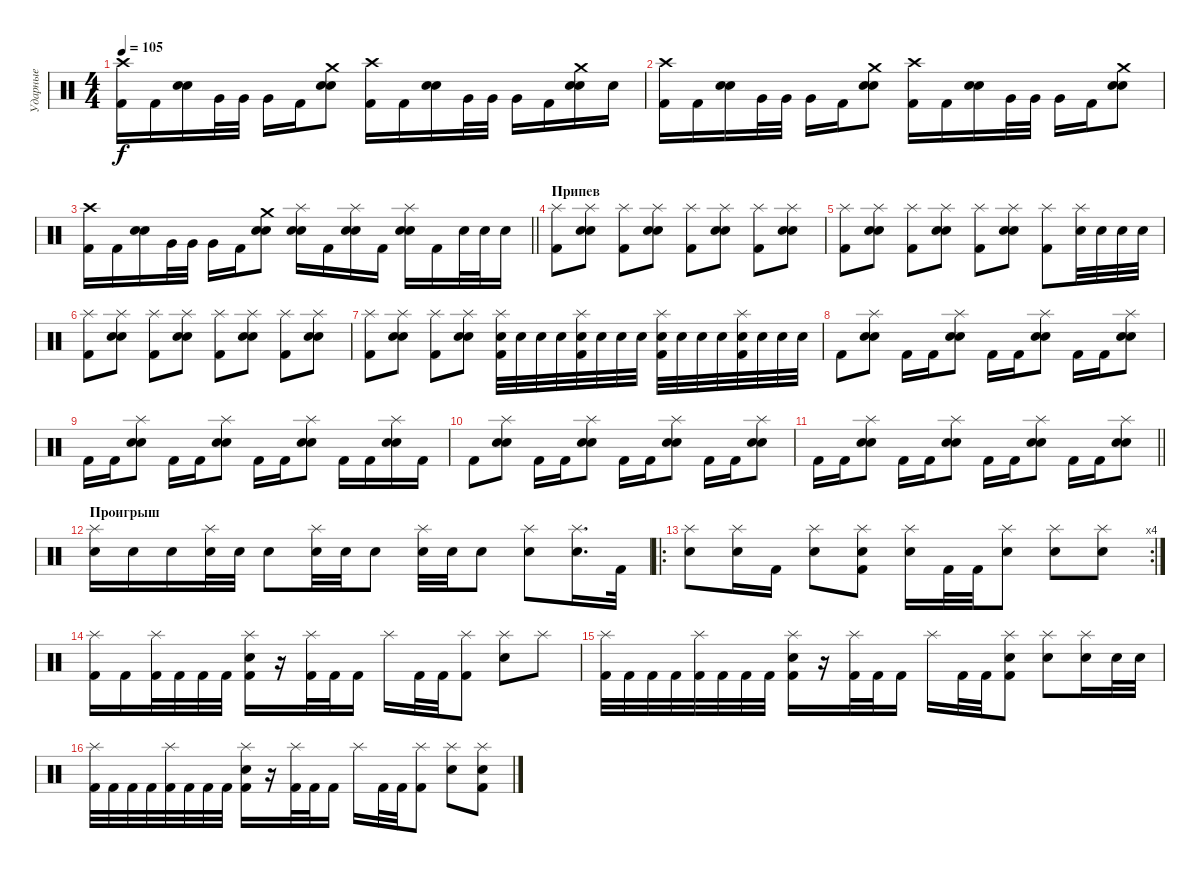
\track ("Ударные" "Ударные") {instrument percussion}
\staff {score}
\articulation defaults
\ts (4 4)
\tempo 105
\clef neutral
\ks c
("Crash high (hit)" "Kick (hit) 2").16{dy f} "Kick (hit) 2".16 ("Electric Snare (hit)" "Snare (hit) 2").16 "Very Low Tom (hit)".32 "Very Low Tom (hit)".32 "Very Low Tom (hit)".16 "Kick (hit) 2".16 ("Crash medium (hit)" "Electric Snare (hit)" "Snare (hit) 2").8 ("Crash high (hit)" "Kick (hit) 2").16 "Kick (hit) 2".16 ("Electric Snare (hit)" "Snare (hit) 2").16 "Very Low Tom (hit)".32 "Very Low Tom (hit)".32 "Very Low Tom (hit)".16 "Kick (hit) 2".16 ("Crash medium (hit)" "Electric Snare (hit)" "Snare (hit) 2").16 "Electric Snare (hit)".16 |
("Crash high (hit)" "Kick (hit) 2").16 "Kick (hit) 2".16 ("Electric Snare (hit)" "Snare (hit) 2").16 "Very Low Tom (hit)".32 "Very Low Tom (hit)".32 "Very Low Tom (hit)".16 "Kick (hit) 2".16 ("Crash medium (hit)" "Electric Snare (hit)" "Snare (hit) 2").8 ("Crash high (hit)" "Kick (hit) 2").16 "Kick (hit) 2".16 ("Electric Snare (hit)" "Snare (hit) 2").16 "Very Low Tom (hit)".32 "Very Low Tom (hit)".32 "Very Low Tom (hit)".16 "Kick (hit) 2".16 ("Crash medium (hit)" "Electric Snare (hit)" "Snare (hit) 2").8 |
\barLineRight lightlight
("Crash high (hit)" "Kick (hit) 2").16 "Kick (hit) 2".16 ("Electric Snare (hit)" "Snare (hit) 2").16 "Very Low Tom (hit)".32 "Very Low Tom (hit)".32 "Very Low Tom (hit)".16 "Kick (hit) 2".16 ("Crash medium (hit)" "Electric Snare (hit)" "Snare (hit) 2").8 ("Splash (hit)" "Electric Snare (hit)" "Snare (hit) 2").16 "Kick (hit) 2".16 ("Splash (hit)" "Electric Snare (hit)" "Snare (hit) 2").16 "Kick (hit) 2".16 ("Splash (hit)" "Electric Snare (hit)" "Snare (hit) 2").16 "Kick (hit) 2".16 "Electric Snare (hit)".32 "Electric Snare (hit)".32 "Electric Snare (hit)".16 |
\section ("" "Припев")
("Splash (hit)" "Kick (hit) 2").8 ("Splash (hit)" "Electric Snare (hit)" "Snare (hit) 2").8 ("Splash (hit)" "Kick (hit) 2").8 ("Splash (hit)" "Electric Snare (hit)" "Snare (hit) 2").8 ("Splash (hit)" "Kick (hit) 2").8 ("Splash (hit)" "Electric Snare (hit)" "Snare (hit) 2").8 ("Splash (hit)" "Kick (hit) 2").8 ("Splash (hit)" "Electric Snare (hit)" "Snare (hit) 2").8 |
("Splash (hit)" "Kick (hit) 2").8 ("Splash (hit)" "Electric Snare (hit)" "Snare (hit) 2").8 ("Splash (hit)" "Kick (hit) 2").8 ("Splash (hit)" "Electric Snare (hit)" "Snare (hit) 2").8 ("Splash (hit)" "Kick (hit) 2").8 ("Splash (hit)" "Electric Snare (hit)" "Snare (hit) 2").8 ("Splash (hit)" "Kick (hit) 2").8 ("Splash (hit)" "Electric Snare (hit)").32 "Electric Snare (hit)".32 "Electric Snare (hit)".32 "Electric Snare (hit)".32 |
("Splash (hit)" "Kick (hit) 2").8 ("Splash (hit)" "Electric Snare (hit)" "Snare (hit) 2").8 ("Splash (hit)" "Kick (hit) 2").8 ("Splash (hit)" "Electric Snare (hit)" "Snare (hit) 2").8 ("Splash (hit)" "Kick (hit) 2").8 ("Splash (hit)" "Electric Snare (hit)" "Snare (hit) 2").8 ("Splash (hit)" "Kick (hit) 2").8 ("Splash (hit)" "Electric Snare (hit)" "Snare (hit) 2").8 |
("Splash (hit)" "Kick (hit) 2").8 ("Splash (hit)" "Electric Snare (hit)" "Snare (hit) 2").8 ("Splash (hit)" "Kick (hit) 2").8 ("Splash (hit)" "Electric Snare (hit)" "Snare (hit) 2").8 ("Splash (hit)" "Electric Snare (hit)" "Kick (hit) 2").32 "Electric Snare (hit)".32 "Electric Snare (hit)".32 "Electric Snare (hit)".32 ("Splash (hit)" "Electric Snare (hit)" "Kick (hit) 2").32 "Electric Snare (hit)".32 "Electric Snare (hit)".32 "Electric Snare (hit)".32 ("Splash (hit)" "Electric Snare (hit)" "Kick (hit) 2").32 "Electric Snare (hit)".32 "Electric Snare (hit)".32 "Electric Snare (hit)".32 ("Splash (hit)" "Electric Snare (hit)" "Kick (hit) 2").32 "Electric Snare (hit)".32 "Electric Snare (hit)".32 "Electric Snare (hit)".32 |
"Kick (hit) 2".8 ("Splash (hit)" "Electric Snare (hit)" "Snare (hit) 2").8 "Kick (hit) 2".16 "Kick (hit) 2".16 ("Splash (hit)" "Electric Snare (hit)" "Snare (hit) 2").8 "Kick (hit) 2".16 "Kick (hit) 2".16 ("Splash (hit)" "Electric Snare (hit)" "Snare (hit) 2").8 "Kick (hit) 2".16 "Kick (hit) 2".16 ("Splash (hit)" "Electric Snare (hit)" "Snare (hit) 2").8 |
"Kick (hit) 2".16 "Kick (hit) 2".16 ("Splash (hit)" "Electric Snare (hit)" "Snare (hit) 2").8 "Kick (hit) 2".16 "Kick (hit) 2".16 ("Splash (hit)" "Electric Snare (hit)" "Snare (hit) 2").8 "Kick (hit) 2".16 "Kick (hit) 2".16 ("Splash (hit)" "Electric Snare (hit)" "Snare (hit) 2").8 "Kick (hit) 2".16 "Kick (hit) 2".16 ("Splash (hit)" "Electric Snare (hit)" "Snare (hit) 2").16 "Kick (hit) 2".16 |
"Kick (hit) 2".8 ("Splash (hit)" "Electric Snare (hit)" "Snare (hit) 2").8 "Kick (hit) 2".16 "Kick (hit) 2".16 ("Splash (hit)" "Electric Snare (hit)" "Snare (hit) 2").8 "Kick (hit) 2".16 "Kick (hit) 2".16 ("Splash (hit)" "Electric Snare (hit)" "Snare (hit) 2").8 "Kick (hit) 2".16 "Kick (hit) 2".16 ("Splash (hit)" "Electric Snare (hit)" "Snare (hit) 2").8 |
\barLineRight lightlight "Kick (hit) 2".16 "Kick (hit) 2".16
("Splash (hit)" "Electric Snare (hit)" "Snare (hit) 2").8 "Kick (hit) 2".16 "Kick (hit) 2".16 ("Splash (hit)" "Electric Snare (hit)" "Snare (hit) 2").8 "Kick (hit) 2".16 "Kick (hit) 2".16 ("Splash (hit)" "Electric Snare (hit)" "Snare (hit) 2").8 "Kick (hit) 2".16 "Kick (hit) 2".16 ("Splash (hit)" "Electric Snare (hit)" "Snare (hit) 2").8 |
\section ("" "Проигрыш")
("Splash (hit)" "Electric Snare (hit)").16 "Electric Snare (hit)".16 "Electric Snare (hit)".16 ("Splash (hit)" "Electric Snare (hit)").32 "Electric Snare (hit)".32 "Electric Snare (hit)".8 ("Splash (hit)" "Electric Snare (hit)").32 "Electric Snare (hit)".32 "Electric Snare (hit)".8 ("Splash (hit)" "Electric Snare (hit)").32 "Electric Snare (hit)".32 "Electric Snare (hit)".8 ("Splash (hit)" "Electric Snare (hit)").8 ("Splash (hit)" "Electric Snare (hit)").16{d} "Kick (hit) 2".32 |
\ro
\rc 4
("Splash (hit)" "Electric Snare (hit)").8 ("Splash (hit)" "Electric Snare (hit)").16 "Kick (hit) 2".16 ("Splash (hit)" "Electric Snare (hit)").8 ("Splash (hit)" "Electric Snare (hit)" "Kick (hit) 2").8 ("Splash (hit)" "Electric Snare (hit)").16 "Kick (hit) 2".32 "Kick (hit) 2".32 ("Splash (hit)" "Electric Snare (hit)").8 ("Splash (hit)" "Electric Snare (hit)").8 ("Splash (hit)" "Electric Snare (hit)").8 |
("Splash (hit)" "Kick (hit) 2").16 "Kick (hit) 2".16 ("Splash (hit)" "Kick (hit) 2").32 "Kick (hit) 2".32 "Kick (hit) 2".32 "Kick (hit) 2".32 ("Splash (hit)" "Electric Snare (hit)" "Kick (hit) 2").16 r.16 ("Splash (hit)" "Kick (hit) 2").32 "Kick (hit) 2".32 "Kick (hit) 2".16 "Splash (hit)".16 "Kick (hit) 2".32 "Kick (hit) 2".32 ("Splash (hit)" "Kick (hit) 2").8 ("Splash (hit)" "Electric Snare (hit)").8 "Splash (hit)".8 |
("Splash (hit)" "Kick (hit) 2").32 "Kick (hit) 2".32 "Kick (hit) 2".32 "Kick (hit) 2".32 ("Splash (hit)" "Kick (hit) 2").32 "Kick (hit) 2".32 "Kick (hit) 2".32 "Kick (hit) 2".32 ("Splash (hit)" "Electric Snare (hit)" "Kick (hit) 2").16 r.16 ("Splash (hit)" "Kick (hit) 2").32 "Kick (hit) 2".32 "Kick (hit) 2".16 "Splash (hit)".16 "Kick (hit) 2".32 "Kick (hit) 2".32 ("Splash (hit)" "Electric Snare (hit)" "Kick (hit) 2").8 ("Splash (hit)" "Electric Snare (hit)").8 ("Splash (hit)" "Electric Snare (hit)").16 "Electric Snare (hit)".32 "Electric Snare (hit)".32 |
("Splash (hit)" "Kick (hit) 2").32 "Kick (hit) 2".32 "Kick (hit) 2".32 "Kick (hit) 2".32 ("Splash (hit)" "Kick (hit) 2").32 "Kick (hit) 2".32 "Kick (hit) 2".32 "Kick (hit) 2".32 ("Splash (hit)" "Electric Snare (hit)" "Kick (hit) 2").16 r.16 ("Splash (hit)" "Kick (hit) 2").32 "Kick (hit) 2".32 "Kick (hit) 2".16 "Splash (hit)".16 "Kick (hit) 2".32 "Kick (hit) 2".32 ("Splash (hit)" "Kick (hit) 2").8 ("Splash (hit)" "Electric Snare (hit)").8 ("Splash (hit)" "Electric Snare (hit)" "Kick (hit) 2").8
